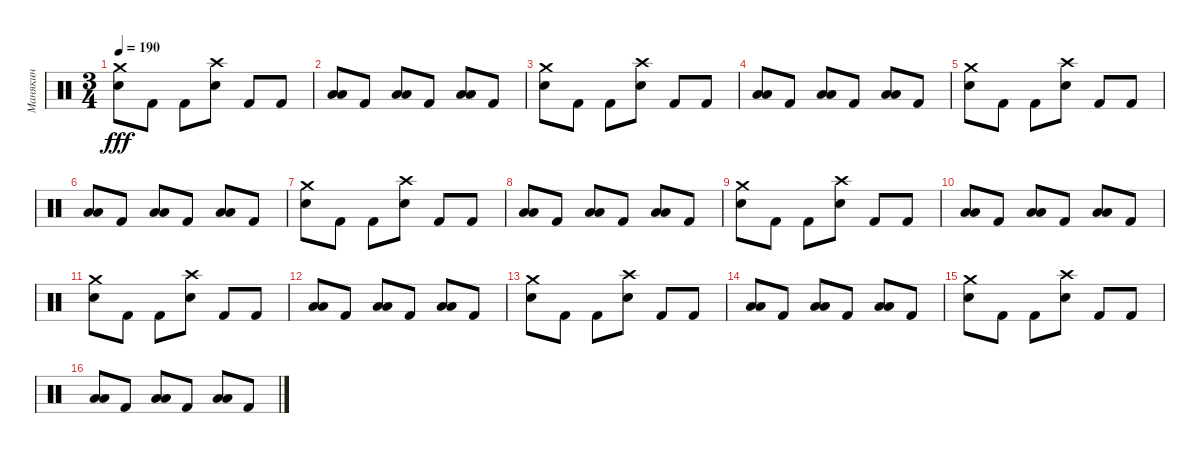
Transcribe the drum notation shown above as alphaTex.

\track ("Манякин" "Манякин") {instrument percussion}
\staff {score}
\articulation defaults
\ts (3 4)
\tempo 190
\clef neutral
\ks c
("Snare (hit) 2" "Crash medium (hit)").8{dy fff} "Kick (hit) 2".8 "Kick (hit) 2".8 ("Crash high (hit)" "Snare (hit) 2").8 "Kick (hit) 2".8 "Kick (hit) 2".8 |
("Low Tom (hit)" "Low Floor Tom (hit)").8 "Kick (hit) 2".8 ("Low Floor Tom (hit)" "Low Tom (hit)").8 "Kick (hit) 2".8 ("Low Floor Tom (hit)" "Low Tom (hit)").8 "Kick (hit) 2".8 |
("Snare (hit) 2" "Crash medium (hit)").8 "Kick (hit) 2".8 "Kick (hit) 2".8 ("Crash high (hit)" "Snare (hit) 2").8 "Kick (hit) 2".8 "Kick (hit) 2".8 |
("Low Tom (hit)" "Low Floor Tom (hit)").8 "Kick (hit) 2".8 ("Low Floor Tom (hit)" "Low Tom (hit)").8 "Kick (hit) 2".8 ("Low Floor Tom (hit)" "Low Tom (hit)").8 "Kick (hit) 2".8 |
("Snare (hit) 2" "Crash medium (hit)").8 "Kick (hit) 2".8 "Kick (hit) 2".8 ("Crash high (hit)" "Snare (hit) 2").8 "Kick (hit) 2".8 "Kick (hit) 2".8 |
("Low Tom (hit)" "Low Floor Tom (hit)").8 "Kick (hit) 2".8 ("Low Floor Tom (hit)" "Low Tom (hit)").8 "Kick (hit) 2".8 ("Low Floor Tom (hit)" "Low Tom (hit)").8 "Kick (hit) 2".8 |
("Snare (hit) 2" "Crash medium (hit)").8 "Kick (hit) 2".8 "Kick (hit) 2".8 ("Crash high (hit)" "Snare (hit) 2").8 "Kick (hit) 2".8 "Kick (hit) 2".8 |
("Low Tom (hit)" "Low Floor Tom (hit)").8 "Kick (hit) 2".8 ("Low Floor Tom (hit)" "Low Tom (hit)").8 "Kick (hit) 2".8 ("Low Floor Tom (hit)" "Low Tom (hit)").8 "Kick (hit) 2".8 |
("Snare (hit) 2" "Crash medium (hit)").8 "Kick (hit) 2".8 "Kick (hit) 2".8 ("Crash high (hit)" "Snare (hit) 2").8 "Kick (hit) 2".8 "Kick (hit) 2".8 |
("Low Tom (hit)" "Low Floor Tom (hit)").8 "Kick (hit) 2".8 ("Low Floor Tom (hit)" "Low Tom (hit)").8 "Kick (hit) 2".8 ("Low Floor Tom (hit)" "Low Tom (hit)").8 "Kick (hit) 2".8 |
("Snare (hit) 2" "Crash medium (hit)").8 "Kick (hit) 2".8 "Kick (hit) 2".8 ("Crash high (hit)" "Snare (hit) 2").8 "Kick (hit) 2".8 "Kick (hit) 2".8 |
("Low Tom (hit)" "Low Floor Tom (hit)").8 "Kick (hit) 2".8 ("Low Floor Tom (hit)" "Low Tom (hit)").8 "Kick (hit) 2".8 ("Low Floor Tom (hit)" "Low Tom (hit)").8 "Kick (hit) 2".8 |
("Snare (hit) 2" "Crash medium (hit)").8 "Kick (hit) 2".8 "Kick (hit) 2".8 ("Crash high (hit)" "Snare (hit) 2").8 "Kick (hit) 2".8 "Kick (hit) 2".8 |
("Low Tom (hit)" "Low Floor Tom (hit)").8 "Kick (hit) 2".8 ("Low Floor Tom (hit)" "Low Tom (hit)").8 "Kick (hit) 2".8 ("Low Floor Tom (hit)" "Low Tom (hit)").8 "Kick (hit) 2".8 |
("Snare (hit) 2" "Crash medium (hit)").8 "Kick (hit) 2".8 "Kick (hit) 2".8 ("Crash high (hit)" "Snare (hit) 2").8 "Kick (hit) 2".8 "Kick (hit) 2".8 |
("Low Tom (hit)" "Low Floor Tom (hit)").8 "Kick (hit) 2".8 ("Low Floor Tom (hit)" "Low Tom (hit)").8 "Kick (hit) 2".8 ("Low Floor Tom (hit)" "Low Tom (hit)").8 "Kick (hit) 2".8
